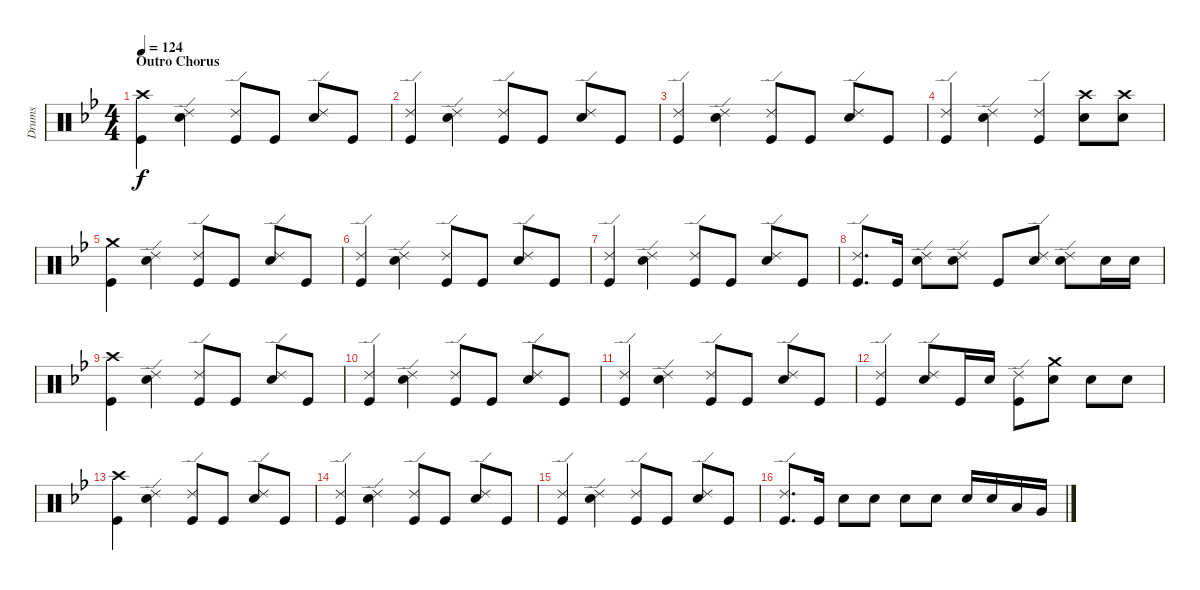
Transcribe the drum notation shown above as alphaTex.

\track ("Drums" "Drums") {instrument percussion}
\staff {score}
\articulation defaults
\ts (4 4)
\section ("" "Outro Chorus")
\tempo 124
\clef neutral
\ks gminor
("Crash high (hit)" "Kick (hit)").4{dy f} ("Ride (edge) 2" "Snare (hit) 2").4 ("Ride (edge) 2" "Kick (hit)").8 "Kick (hit)".8 ("Ride (edge) 2" "Snare (hit) 2").8 "Kick (hit)".8 |
("Ride (edge) 2" "Kick (hit)").4 ("Ride (edge) 2" "Snare (hit) 2").4 ("Ride (edge) 2" "Kick (hit)").8 "Kick (hit)".8 ("Ride (edge) 2" "Snare (hit) 2").8 "Kick (hit)".8 |
("Ride (edge) 2" "Kick (hit)").4 ("Ride (edge) 2" "Snare (hit) 2").4 ("Ride (edge) 2" "Kick (hit)").8 "Kick (hit)".8 ("Ride (edge) 2" "Snare (hit) 2").8 "Kick (hit)".8 |
("Ride (edge) 2" "Kick (hit)").4 ("Ride (edge) 2" "Snare (hit) 2").4 ("Ride (edge) 2" "Kick (hit)").4 ("Crash high (hit)" "Snare (hit) 2").8 ("Crash high (hit)" "Snare (hit) 2").8 |
("Crash medium (hit)" "Kick (hit)").4 ("Ride (edge) 2" "Snare (hit) 2").4 ("Ride (edge) 2" "Kick (hit)").8 "Kick (hit)".8 ("Ride (edge) 2" "Snare (hit) 2").8 "Kick (hit)".8 |
("Ride (edge) 2" "Kick (hit)").4 ("Ride (edge) 2" "Snare (hit) 2").4 ("Ride (edge) 2" "Kick (hit)").8 "Kick (hit)".8 ("Ride (edge) 2" "Snare (hit) 2").8 "Kick (hit)".8 |
("Ride (edge) 2" "Kick (hit)").4 ("Ride (edge) 2" "Snare (hit) 2").4 ("Ride (edge) 2" "Kick (hit)").8 "Kick (hit)".8 ("Ride (edge) 2" "Snare (hit) 2").8 "Kick (hit)".8 |
("Ride (edge) 2" "Kick (hit)").8{d} "Kick (hit)".16 ("Ride (edge) 2" "Snare (hit) 2").8 ("Ride (edge) 2" "Snare (hit) 2").8 "Kick (hit)".8 ("Ride (edge) 2" "Snare (hit) 2").8 ("Ride (edge) 2" "Snare (hit) 2").8 "Snare (hit) 2".16 "Snare (hit) 2".16 |
("Crash high (hit)" "Kick (hit)").4 ("Ride (edge) 2" "Snare (hit) 2").4 ("Ride (edge) 2" "Kick (hit)").8 "Kick (hit)".8 ("Ride (edge) 2" "Snare (hit) 2").8 "Kick (hit)".8 |
("Ride (edge) 2" "Kick (hit)").4 ("Ride (edge) 2" "Snare (hit) 2").4 ("Ride (edge) 2" "Kick (hit)").8 "Kick (hit)".8 ("Ride (edge) 2" "Snare (hit) 2").8 "Kick (hit)".8 |
("Ride (edge) 2" "Kick (hit)").4 ("Ride (edge) 2" "Snare (hit) 2").4 ("Ride (edge) 2" "Kick (hit)").8 "Kick (hit)".8 ("Ride (edge) 2" "Snare (hit) 2").8 "Kick (hit)".8 |
("Ride (edge) 2" "Kick (hit)").4 ("Ride (edge) 2" "Snare (hit) 2").8 "Kick (hit)".16 "Snare (hit) 2".16 ("Ride (edge) 2" "Kick (hit)").8 ("Crash medium (hit)" "Snare (hit) 2").8 "Snare (hit) 2".8 "Snare (hit) 2".8 |
("Crash high (hit)" "Kick (hit)").4 ("Ride (edge) 2" "Snare (hit) 2").4 ("Ride (edge) 2" "Kick (hit)").8 "Kick (hit)".8 ("Ride (edge) 2" "Snare (hit) 2").8 "Kick (hit)".8 |
("Ride (edge) 2" "Kick (hit)").4 ("Ride (edge) 2" "Snare (hit) 2").4 ("Ride (edge) 2" "Kick (hit)").8 "Kick (hit)".8 ("Ride (edge) 2" "Snare (hit) 2").8 "Kick (hit)".8 |
("Ride (edge) 2" "Kick (hit)").4 ("Ride (edge) 2" "Snare (hit) 2").4 ("Ride (edge) 2" "Kick (hit)").8 "Kick (hit)".8 ("Ride (edge) 2" "Snare (hit) 2").8 "Kick (hit)".8 |
("Ride (edge) 2" "Kick (hit)").8{d} "Kick (hit)".16 "Snare (hit) 2".8 "Snare (hit) 2".8 "Snare (hit) 2".8 "Snare (hit) 2".8 "Snare (hit) 2".16 "Snare (hit) 2".16 "Low Tom (hit)".16 "Very Low Tom (hit)".16
